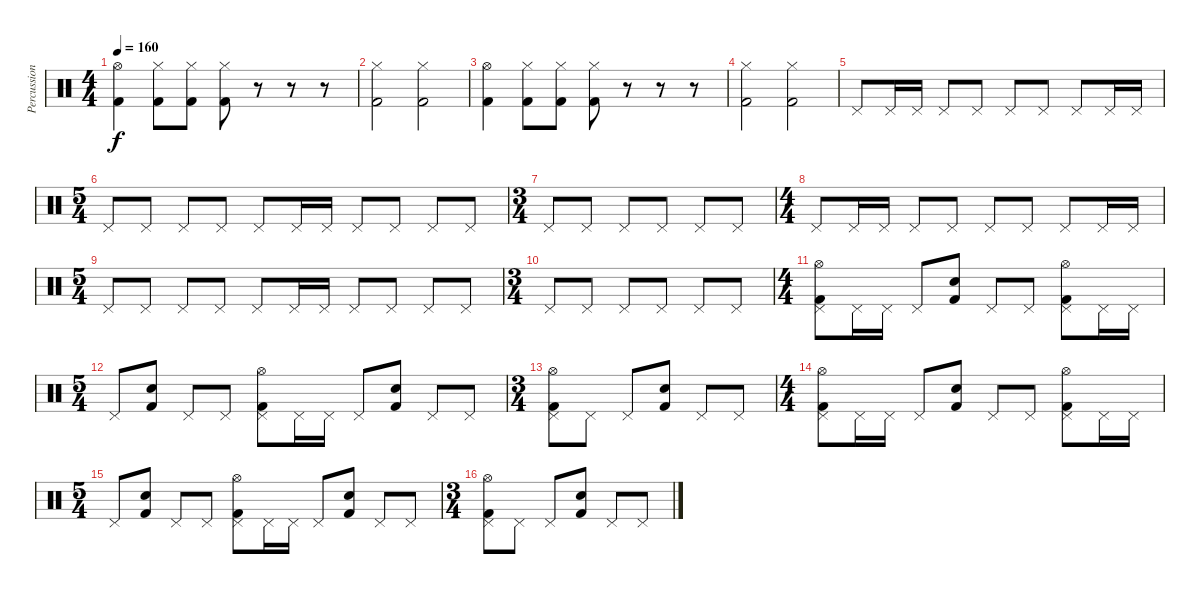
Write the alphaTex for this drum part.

\track ("Percussion" "Percussion") {instrument percussion}
\staff {score}
\articulation defaults
\ts (4 4)
\tempo 160
\clef neutral
\ks c
("Hi-Hat (open)" "Kick (hit) 2").4{dy f} ("Hi-Hat (closed)" "Kick (hit) 2").8 ("Hi-Hat (closed)" "Kick (hit) 2").8 ("Hi-Hat (closed)" "Kick (hit) 2").8 r.8 r.8 r.8 |
("Hi-Hat (closed)" "Kick (hit) 2").2 ("Hi-Hat (closed)" "Kick (hit) 2").2 |
("Hi-Hat (open)" "Kick (hit) 2").4 ("Hi-Hat (closed)" "Kick (hit) 2").8 ("Hi-Hat (closed)" "Kick (hit) 2").8 ("Hi-Hat (closed)" "Kick (hit) 2").8 r.8 r.8 r.8 |
("Hi-Hat (closed)" "Kick (hit) 2").2 ("Hi-Hat (closed)" "Kick (hit) 2").2 |
"Pedal Hi-Hat (hit)".8 "Pedal Hi-Hat (hit)".16 "Pedal Hi-Hat (hit)".16 "Pedal Hi-Hat (hit)".8 "Pedal Hi-Hat (hit)".8 "Pedal Hi-Hat (hit)".8 "Pedal Hi-Hat (hit)".8 "Pedal Hi-Hat (hit)".8 "Pedal Hi-Hat (hit)".16 "Pedal Hi-Hat (hit)".16 |
\ts (5 4)
"Pedal Hi-Hat (hit)".8 "Pedal Hi-Hat (hit)".8 "Pedal Hi-Hat (hit)".8 "Pedal Hi-Hat (hit)".8 "Pedal Hi-Hat (hit)".8 "Pedal Hi-Hat (hit)".16 "Pedal Hi-Hat (hit)".16 "Pedal Hi-Hat (hit)".8 "Pedal Hi-Hat (hit)".8 "Pedal Hi-Hat (hit)".8 "Pedal Hi-Hat (hit)".8 |
\ts (3 4)
"Pedal Hi-Hat (hit)".8 "Pedal Hi-Hat (hit)".8 "Pedal Hi-Hat (hit)".8 "Pedal Hi-Hat (hit)".8 "Pedal Hi-Hat (hit)".8 "Pedal Hi-Hat (hit)".8 |
\ts (4 4)
"Pedal Hi-Hat (hit)".8 "Pedal Hi-Hat (hit)".16 "Pedal Hi-Hat (hit)".16 "Pedal Hi-Hat (hit)".8 "Pedal Hi-Hat (hit)".8 "Pedal Hi-Hat (hit)".8 "Pedal Hi-Hat (hit)".8 "Pedal Hi-Hat (hit)".8 "Pedal Hi-Hat (hit)".16 "Pedal Hi-Hat (hit)".16 |
\ts (5 4)
"Pedal Hi-Hat (hit)".8 "Pedal Hi-Hat (hit)".8 "Pedal Hi-Hat (hit)".8 "Pedal Hi-Hat (hit)".8 "Pedal Hi-Hat (hit)".8 "Pedal Hi-Hat (hit)".16 "Pedal Hi-Hat (hit)".16 "Pedal Hi-Hat (hit)".8 "Pedal Hi-Hat (hit)".8 "Pedal Hi-Hat (hit)".8 "Pedal Hi-Hat (hit)".8 |
\ts (3 4)
"Pedal Hi-Hat (hit)".8 "Pedal Hi-Hat (hit)".8 "Pedal Hi-Hat (hit)".8 "Pedal Hi-Hat (hit)".8 "Pedal Hi-Hat (hit)".8 "Pedal Hi-Hat (hit)".8 |
\ts (4 4)
("Hi-Hat (open)" "Kick (hit) 2" "Pedal Hi-Hat (hit)").8 "Pedal Hi-Hat (hit)".16 "Pedal Hi-Hat (hit)".16 "Pedal Hi-Hat (hit)".8 ("Snare (hit) 2" "Kick (hit) 2").8 "Pedal Hi-Hat (hit)".8 "Pedal Hi-Hat (hit)".8 ("Hi-Hat (open)" "Kick (hit) 2" "Pedal Hi-Hat (hit)").8 "Pedal Hi-Hat (hit)".16 "Pedal Hi-Hat (hit)".16 |
\ts (5 4)
"Pedal Hi-Hat (hit)".8 ("Snare (hit) 2" "Kick (hit) 2").8 "Pedal Hi-Hat (hit)".8 "Pedal Hi-Hat (hit)".8 ("Hi-Hat (open)" "Kick (hit) 2" "Pedal Hi-Hat (hit)").8 "Pedal Hi-Hat (hit)".16 "Pedal Hi-Hat (hit)".16 "Pedal Hi-Hat (hit)".8 ("Snare (hit) 2" "Kick (hit) 2").8 "Pedal Hi-Hat (hit)".8 "Pedal Hi-Hat (hit)".8 |
\ts (3 4)
("Hi-Hat (open)" "Kick (hit) 2" "Pedal Hi-Hat (hit)").8 "Pedal Hi-Hat (hit)".8 "Pedal Hi-Hat (hit)".8 ("Snare (hit) 2" "Kick (hit) 2").8 "Pedal Hi-Hat (hit)".8 "Pedal Hi-Hat (hit)".8 |
\ts (4 4)
("Hi-Hat (open)" "Kick (hit) 2" "Pedal Hi-Hat (hit)").8 "Pedal Hi-Hat (hit)".16 "Pedal Hi-Hat (hit)".16 "Pedal Hi-Hat (hit)".8 ("Snare (hit) 2" "Kick (hit) 2").8 "Pedal Hi-Hat (hit)".8 "Pedal Hi-Hat (hit)".8 ("Hi-Hat (open)" "Kick (hit) 2" "Pedal Hi-Hat (hit)").8 "Pedal Hi-Hat (hit)".16 "Pedal Hi-Hat (hit)".16 |
\ts (5 4)
"Pedal Hi-Hat (hit)".8 ("Snare (hit) 2" "Kick (hit) 2").8 "Pedal Hi-Hat (hit)".8 "Pedal Hi-Hat (hit)".8 ("Hi-Hat (open)" "Kick (hit) 2" "Pedal Hi-Hat (hit)").8 "Pedal Hi-Hat (hit)".16 "Pedal Hi-Hat (hit)".16 "Pedal Hi-Hat (hit)".8 ("Snare (hit) 2" "Kick (hit) 2").8 "Pedal Hi-Hat (hit)".8 "Pedal Hi-Hat (hit)".8 |
\ts (3 4)
("Hi-Hat (open)" "Kick (hit) 2" "Pedal Hi-Hat (hit)").8 "Pedal Hi-Hat (hit)".8 "Pedal Hi-Hat (hit)".8 ("Snare (hit) 2" "Kick (hit) 2").8 "Pedal Hi-Hat (hit)".8 "Pedal Hi-Hat (hit)".8
